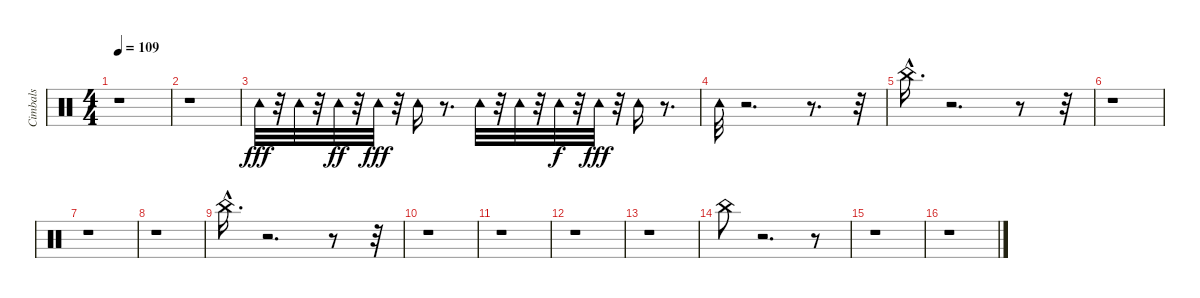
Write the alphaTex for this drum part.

\track ("Cimbals" "Cimbals") {instrument percussion}
\staff {score}
\articulation defaults
\ts (4 4)
\tempo 109
\clef neutral
\ks c
r.1{dy fff} |
r.1 |
"Tambourine (hit)".32 r.32 "Tambourine (hit)".32 r.32 "Tambourine (hit)".32{dy ff} r.32 "Tambourine (hit)".32{dy fff} r.32 "Tambourine (hit)".16 r.8{d} "Tambourine (hit)".32 r.32 "Tambourine (hit)".32 r.32 "Tambourine (hit)".32{dy f} r.32 "Tambourine (hit)".32{dy fff} r.32 "Tambourine (hit)".16 r.8{d} |
"Tambourine (hit)".32 r.2{d} r.8{d} r.32 |
"China (choke)"{hac}.16{d} r.2{d} r.8 r.32 |
r.1 |
r.1 |
r.1 |
"China (choke)"{hac}.16{d} r.2{d} r.8 r.32 |
r.1 |
r.1 |
r.1 |
r.1 |
"China (choke)".8 r.2{d} r.8 |
r.1 |
r.1
